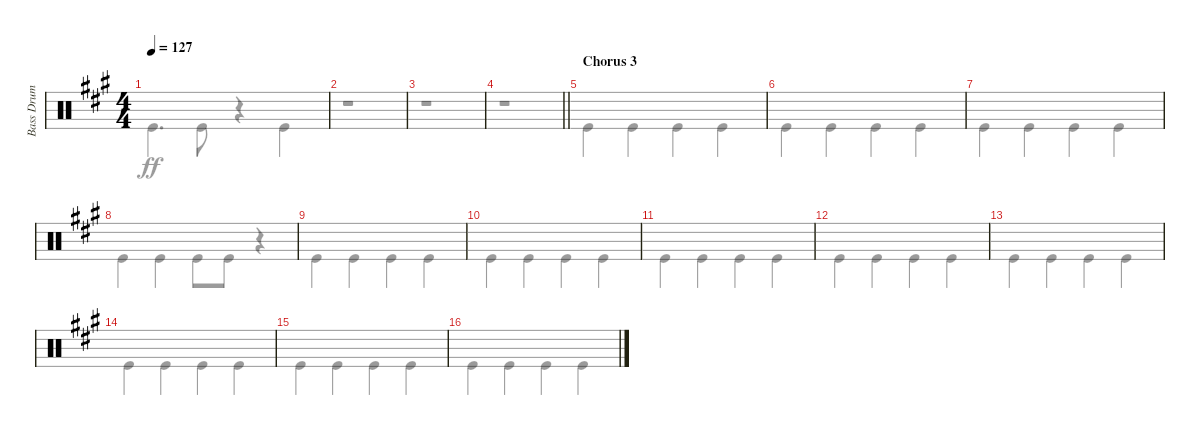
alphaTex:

\track ("Bass Drum" "Bass Drum") {instrument percussion}
\staff {score}
\articulation defaults
\voice
\ts (4 4)
\tempo 127
\clef neutral
\ks a
|
|
|
\barLineRight lightlight
|
\section ("" "Chorus 3")
|
|
|
|
|
|
|
|
|
|
|
\voice
\clef neutral
\ks a "Kick (hit)".4{d dy ff} "Kick (hit)".8
r.4 "Kick (hit)".4 |
r.1 |
r.1 |
\barLineRight lightlight
r.1 |
"Kick (hit)".4 "Kick (hit)".4 "Kick (hit)".4 "Kick (hit)".4 |
"Kick (hit)".4 "Kick (hit)".4 "Kick (hit)".4 "Kick (hit)".4 |
"Kick (hit)".4 "Kick (hit)".4 "Kick (hit)".4 "Kick (hit)".4 |
"Kick (hit)".4 "Kick (hit)".4 "Kick (hit)".8 "Kick (hit)".8 r.4 |
"Kick (hit)".4 "Kick (hit)".4 "Kick (hit)".4 "Kick (hit)".4 |
"Kick (hit)".4 "Kick (hit)".4 "Kick (hit)".4 "Kick (hit)".4 |
"Kick (hit)".4 "Kick (hit)".4 "Kick (hit)".4 "Kick (hit)".4 |
"Kick (hit)".4 "Kick (hit)".4 "Kick (hit)".4 "Kick (hit)".4 |
"Kick (hit)".4 "Kick (hit)".4 "Kick (hit)".4 "Kick (hit)".4 |
"Kick (hit)".4 "Kick (hit)".4 "Kick (hit)".4 "Kick (hit)".4 |
"Kick (hit)".4 "Kick (hit)".4 "Kick (hit)".4 "Kick (hit)".4 |
"Kick (hit)".4 "Kick (hit)".4 "Kick (hit)".4 "Kick (hit)".4
